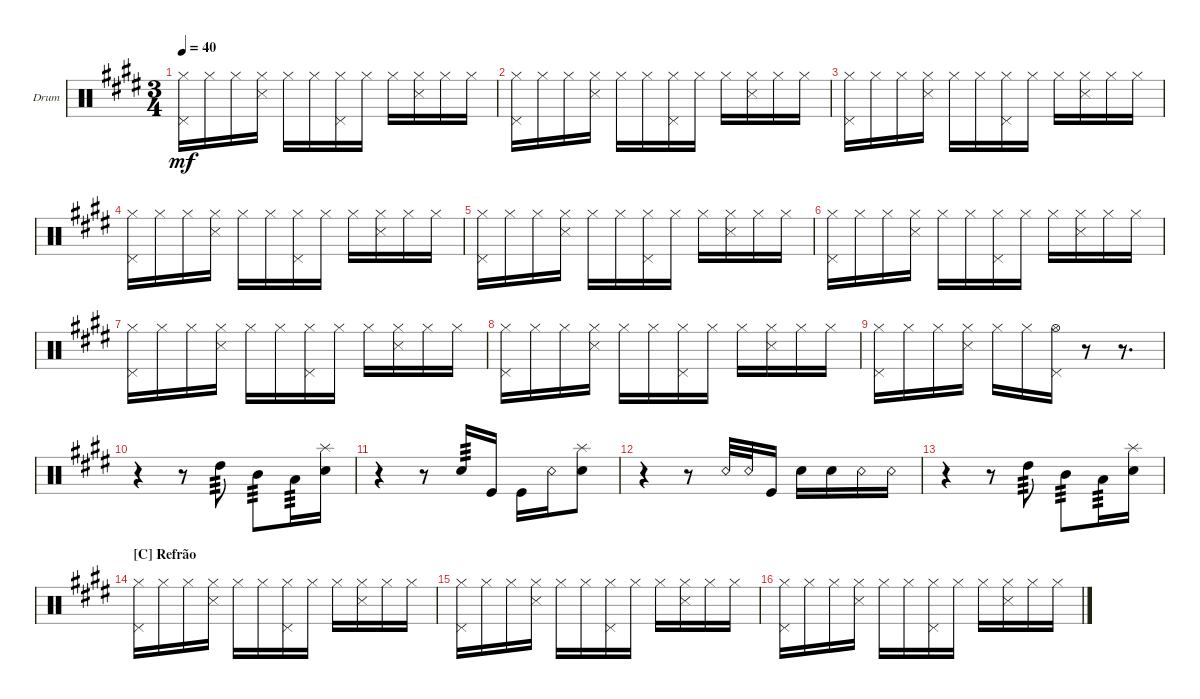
\defaultSystemsLayout 4
\bracketExtendMode groupsimilarinstruments
\firstSystemTrackNameOrientation horizontal
\otherSystemsTrackNameOrientation horizontal
\track ("Drum" "Drum") {multiBarRest instrument percussion}
\staff {score}
\articulation defaults
\ts (3 4)
\tempo 40
\clef neutral
\ks c#minor
("Hi-Hat (closed)" "Pedal Hi-Hat (hit)").16{dy mf} "Hi-Hat (closed)".16 "Hi-Hat (closed)".16 ("Hi-Hat (closed)" "Snare (side stick) 3").16 "Hi-Hat (closed)".16 "Hi-Hat (closed)".16 ("Hi-Hat (closed)" "Pedal Hi-Hat (hit)").16 "Hi-Hat (closed)".16 "Hi-Hat (closed)".16 ("Hi-Hat (closed)" "Snare (side stick) 3").16 "Hi-Hat (closed)".16 "Hi-Hat (closed)".16 |
("Hi-Hat (closed)" "Pedal Hi-Hat (hit)").16 "Hi-Hat (closed)".16 "Hi-Hat (closed)".16 ("Hi-Hat (closed)" "Snare (side stick) 3").16 "Hi-Hat (closed)".16 "Hi-Hat (closed)".16 ("Hi-Hat (closed)" "Pedal Hi-Hat (hit)").16 "Hi-Hat (closed)".16 "Hi-Hat (closed)".16 ("Hi-Hat (closed)" "Snare (side stick) 3").16 "Hi-Hat (closed)".16 "Hi-Hat (closed)".16 |
("Hi-Hat (closed)" "Pedal Hi-Hat (hit)").16 "Hi-Hat (closed)".16 "Hi-Hat (closed)".16 ("Hi-Hat (closed)" "Snare (side stick) 3").16 "Hi-Hat (closed)".16 "Hi-Hat (closed)".16 ("Hi-Hat (closed)" "Pedal Hi-Hat (hit)").16 "Hi-Hat (closed)".16 "Hi-Hat (closed)".16 ("Hi-Hat (closed)" "Snare (side stick) 3").16 "Hi-Hat (closed)".16 "Hi-Hat (closed)".16 |
("Hi-Hat (closed)" "Pedal Hi-Hat (hit)").16 "Hi-Hat (closed)".16 "Hi-Hat (closed)".16 ("Hi-Hat (closed)" "Snare (side stick) 3").16 "Hi-Hat (closed)".16 "Hi-Hat (closed)".16 ("Hi-Hat (closed)" "Pedal Hi-Hat (hit)").16 "Hi-Hat (closed)".16 "Hi-Hat (closed)".16 ("Hi-Hat (closed)" "Snare (side stick) 3").16 "Hi-Hat (closed)".16 "Hi-Hat (closed)".16 |
("Hi-Hat (closed)" "Pedal Hi-Hat (hit)").16 "Hi-Hat (closed)".16 "Hi-Hat (closed)".16 ("Hi-Hat (closed)" "Snare (side stick) 3").16 "Hi-Hat (closed)".16 "Hi-Hat (closed)".16 ("Hi-Hat (closed)" "Pedal Hi-Hat (hit)").16 "Hi-Hat (closed)".16 "Hi-Hat (closed)".16 ("Hi-Hat (closed)" "Snare (side stick) 3").16 "Hi-Hat (closed)".16 "Hi-Hat (closed)".16 |
("Hi-Hat (closed)" "Pedal Hi-Hat (hit)").16 "Hi-Hat (closed)".16 "Hi-Hat (closed)".16 ("Hi-Hat (closed)" "Snare (side stick) 3").16 "Hi-Hat (closed)".16 "Hi-Hat (closed)".16 ("Hi-Hat (closed)" "Pedal Hi-Hat (hit)").16 "Hi-Hat (closed)".16 "Hi-Hat (closed)".16 ("Hi-Hat (closed)" "Snare (side stick) 3").16 "Hi-Hat (closed)".16 "Hi-Hat (closed)".16 |
("Hi-Hat (closed)" "Pedal Hi-Hat (hit)").16 "Hi-Hat (closed)".16 "Hi-Hat (closed)".16 ("Hi-Hat (closed)" "Snare (side stick) 3").16 "Hi-Hat (closed)".16 "Hi-Hat (closed)".16 ("Hi-Hat (closed)" "Pedal Hi-Hat (hit)").16 "Hi-Hat (closed)".16 "Hi-Hat (closed)".16 ("Hi-Hat (closed)" "Snare (side stick) 3").16 "Hi-Hat (closed)".16 "Hi-Hat (closed)".16 |
("Hi-Hat (closed)" "Pedal Hi-Hat (hit)").16 "Hi-Hat (closed)".16 "Hi-Hat (closed)".16 ("Hi-Hat (closed)" "Snare (side stick) 3").16 "Hi-Hat (closed)".16 "Hi-Hat (closed)".16 ("Hi-Hat (closed)" "Pedal Hi-Hat (hit)").16 "Hi-Hat (closed)".16 "Hi-Hat (closed)".16 ("Hi-Hat (closed)" "Snare (side stick) 3").16 "Hi-Hat (closed)".16 "Hi-Hat (closed)".16 |
("Hi-Hat (closed)" "Pedal Hi-Hat (hit)").16 "Hi-Hat (closed)".16 "Hi-Hat (closed)".16 ("Hi-Hat (closed)" "Snare (side stick) 3").16 "Hi-Hat (closed)".16 "Hi-Hat (closed)".16 ("Pedal Hi-Hat (hit)" "Hi-Hat (open)").16 r.8 r.8{d} |
r.4 r.8 "High Tom (hit)".8{tp 3} "Mid Tom (hit)".8{tp 3} "Low Tom (hit)".16{tp 3} ("Snare (hit) 2" "Splash (hit)").16 |
r.4 r.8 "Snare (hit) 2".16{tp 3} "Kick (hit)".16 "Kick (hit)".16 "Snare (rim shot)".16 ("Snare (hit) 2" "Splash (hit)").8 |
r.4 r.8 "Snare (rim shot)".32 "Snare (rim shot)".32 "Kick (hit)".16 "Snare (hit) 2".16 "Snare (hit) 2".16 "Snare (rim shot)".16 "Snare (rim shot)".16 |
r.4 r.8 "High Tom (hit)".8{tp 3} "Mid Tom (hit)".8{tp 3} "Low Tom (hit)".16{tp 3} ("Snare (hit) 2" "Splash (hit)").16 |
\section ("C" "Refrão")
("Hi-Hat (closed)" "Pedal Hi-Hat (hit)").16 "Hi-Hat (closed)".16 "Hi-Hat (closed)".16 ("Hi-Hat (closed)" "Snare (side stick) 3").16 "Hi-Hat (closed)".16 "Hi-Hat (closed)".16 ("Hi-Hat (closed)" "Pedal Hi-Hat (hit)").16 "Hi-Hat (closed)".16 "Hi-Hat (closed)".16 ("Hi-Hat (closed)" "Snare (side stick) 3").16 "Hi-Hat (closed)".16 "Hi-Hat (closed)".16 |
("Hi-Hat (closed)" "Pedal Hi-Hat (hit)").16 "Hi-Hat (closed)".16 "Hi-Hat (closed)".16 ("Hi-Hat (closed)" "Snare (side stick) 3").16 "Hi-Hat (closed)".16 "Hi-Hat (closed)".16 ("Hi-Hat (closed)" "Pedal Hi-Hat (hit)").16 "Hi-Hat (closed)".16 "Hi-Hat (closed)".16 ("Hi-Hat (closed)" "Snare (side stick) 3").16 "Hi-Hat (closed)".16 "Hi-Hat (closed)".16 |
("Hi-Hat (closed)" "Pedal Hi-Hat (hit)").16 "Hi-Hat (closed)".16 "Hi-Hat (closed)".16 ("Hi-Hat (closed)" "Snare (side stick) 3").16 "Hi-Hat (closed)".16 "Hi-Hat (closed)".16 ("Hi-Hat (closed)" "Pedal Hi-Hat (hit)").16 "Hi-Hat (closed)".16 "Hi-Hat (closed)".16 ("Hi-Hat (closed)" "Snare (side stick) 3").16 "Hi-Hat (closed)".16 "Hi-Hat (closed)".16
